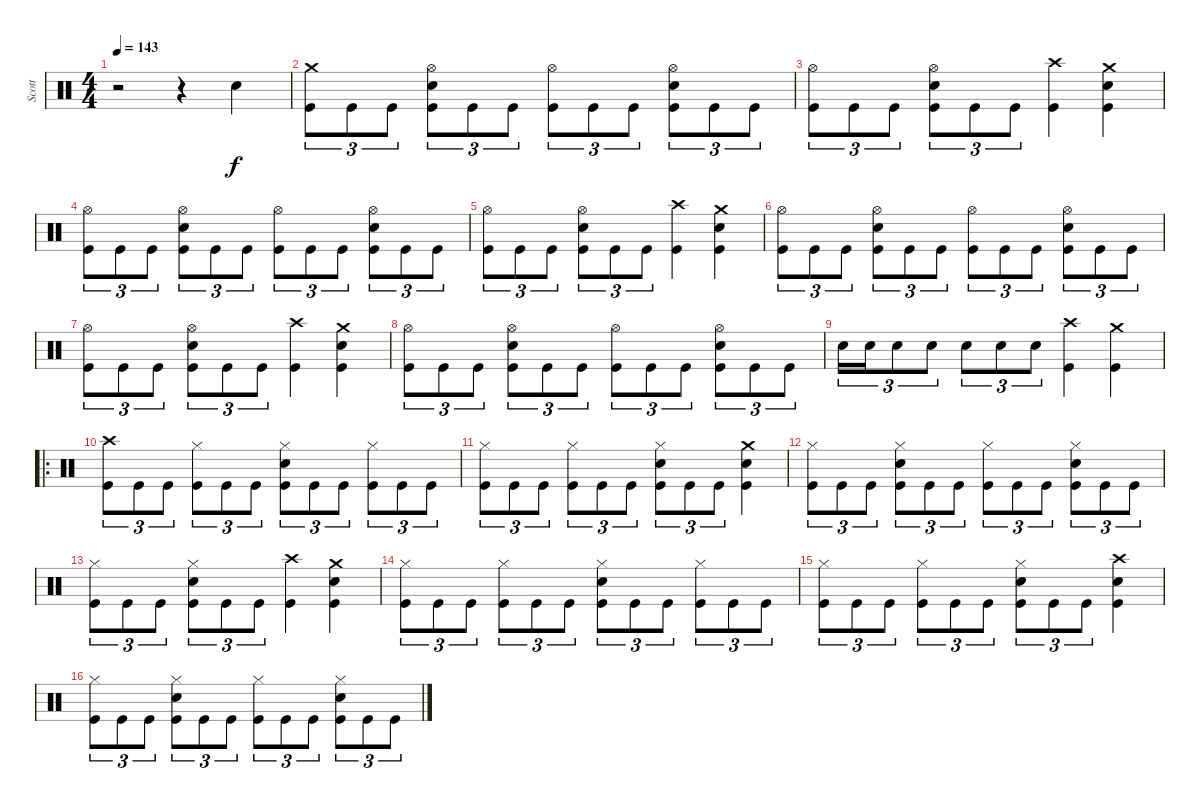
\track ("Scott" "Scott") {instrument percussion}
\staff {score}
\articulation defaults
\ts (4 4)
\tempo 143
\clef neutral
\ks c
r.2{dy f} r.4 "Snare (hit) 2".4 |
("Kick (hit)" "Crash medium (hit)").8{tu (3 2)} "Kick (hit)".8{tu (3 2)} "Kick (hit)".8{tu (3 2)} ("Kick (hit)" "Snare (hit) 2" "Hi-Hat (open)").8{tu (3 2)} "Kick (hit)".8{tu (3 2)} "Kick (hit)".8{tu (3 2)} ("Kick (hit)" "Hi-Hat (open)").8{tu (3 2)} "Kick (hit)".8{tu (3 2)} "Kick (hit)".8{tu (3 2)} ("Kick (hit)" "Snare (hit) 2" "Hi-Hat (open)").8{tu (3 2)} "Kick (hit)".8{tu (3 2)} "Kick (hit)".8{tu (3 2)} |
("Kick (hit)" "Hi-Hat (open)").8{tu (3 2)} "Kick (hit)".8{tu (3 2)} "Kick (hit)".8{tu (3 2)} ("Kick (hit)" "Snare (hit) 2" "Hi-Hat (open)").8{tu (3 2)} "Kick (hit)".8{tu (3 2)} "Kick (hit)".8{tu (3 2)} ("Kick (hit)" "Crash high (hit)").4 ("Kick (hit)" "Snare (hit) 2" "Crash medium (hit)").4 |
("Kick (hit)" "Hi-Hat (open)").8{tu (3 2)} "Kick (hit)".8{tu (3 2)} "Kick (hit)".8{tu (3 2)} ("Kick (hit)" "Snare (hit) 2" "Hi-Hat (open)").8{tu (3 2)} "Kick (hit)".8{tu (3 2)} "Kick (hit)".8{tu (3 2)} ("Kick (hit)" "Hi-Hat (open)").8{tu (3 2)} "Kick (hit)".8{tu (3 2)} "Kick (hit)".8{tu (3 2)} ("Kick (hit)" "Snare (hit) 2" "Hi-Hat (open)").8{tu (3 2)} "Kick (hit)".8{tu (3 2)} "Kick (hit)".8{tu (3 2)} |
("Kick (hit)" "Hi-Hat (open)").8{tu (3 2)} "Kick (hit)".8{tu (3 2)} "Kick (hit)".8{tu (3 2)} ("Kick (hit)" "Snare (hit) 2" "Hi-Hat (open)").8{tu (3 2)} "Kick (hit)".8{tu (3 2)} "Kick (hit)".8{tu (3 2)} ("Kick (hit)" "Crash high (hit)").4 ("Kick (hit)" "Snare (hit) 2" "Crash medium (hit)").4 |
("Kick (hit)" "Hi-Hat (open)").8{tu (3 2)} "Kick (hit)".8{tu (3 2)} "Kick (hit)".8{tu (3 2)} ("Kick (hit)" "Snare (hit) 2" "Hi-Hat (open)").8{tu (3 2)} "Kick (hit)".8{tu (3 2)} "Kick (hit)".8{tu (3 2)} ("Kick (hit)" "Hi-Hat (open)").8{tu (3 2)} "Kick (hit)".8{tu (3 2)} "Kick (hit)".8{tu (3 2)} ("Kick (hit)" "Snare (hit) 2" "Hi-Hat (open)").8{tu (3 2)} "Kick (hit)".8{tu (3 2)} "Kick (hit)".8{tu (3 2)} |
("Kick (hit)" "Hi-Hat (open)").8{tu (3 2)} "Kick (hit)".8{tu (3 2)} "Kick (hit)".8{tu (3 2)} ("Kick (hit)" "Snare (hit) 2" "Hi-Hat (open)").8{tu (3 2)} "Kick (hit)".8{tu (3 2)} "Kick (hit)".8{tu (3 2)} ("Kick (hit)" "Crash high (hit)").4 ("Kick (hit)" "Snare (hit) 2" "Crash medium (hit)").4 |
("Kick (hit)" "Hi-Hat (open)").8{tu (3 2)} "Kick (hit)".8{tu (3 2)} "Kick (hit)".8{tu (3 2)} ("Kick (hit)" "Snare (hit) 2" "Hi-Hat (open)").8{tu (3 2)} "Kick (hit)".8{tu (3 2)} "Kick (hit)".8{tu (3 2)} ("Kick (hit)" "Hi-Hat (open)").8{tu (3 2)} "Kick (hit)".8{tu (3 2)} "Kick (hit)".8{tu (3 2)} ("Kick (hit)" "Snare (hit) 2" "Hi-Hat (open)").8{tu (3 2)} "Kick (hit)".8{tu (3 2)} "Kick (hit)".8{tu (3 2)} |
"Snare (hit) 2".16{tu (3 2)} "Snare (hit) 2".16{tu (3 2)} "Snare (hit) 2".8{tu (3 2)} "Snare (hit) 2".8{tu (3 2)} "Snare (hit) 2".8{tu (3 2)} "Snare (hit) 2".8{tu (3 2)} "Snare (hit) 2".8{tu (3 2)} ("Kick (hit)" "Crash high (hit)").4 ("Kick (hit)" "Crash medium (hit)").4 |
\ro
("Kick (hit)" "Crash high (hit)").8{tu (3 2)} "Kick (hit)".8{tu (3 2)} "Kick (hit)".8{tu (3 2)} ("Kick (hit)" "Hi-Hat (closed)").8{tu (3 2)} "Kick (hit)".8{tu (3 2)} "Kick (hit)".8{tu (3 2)} ("Kick (hit)" "Snare (hit) 2" "Hi-Hat (closed)").8{tu (3 2)} "Kick (hit)".8{tu (3 2)} "Kick (hit)".8{tu (3 2)} ("Kick (hit)" "Hi-Hat (closed)").8{tu (3 2)} "Kick (hit)".8{tu (3 2)} "Kick (hit)".8{tu (3 2)} |
("Kick (hit)" "Hi-Hat (closed)").8{tu (3 2)} "Kick (hit)".8{tu (3 2)} "Kick (hit)".8{tu (3 2)} ("Kick (hit)" "Hi-Hat (closed)").8{tu (3 2)} "Kick (hit)".8{tu (3 2)} "Kick (hit)".8{tu (3 2)} ("Kick (hit)" "Snare (hit) 2" "Hi-Hat (closed)").8{tu (3 2)} "Kick (hit)".8{tu (3 2)} "Kick (hit)".8{tu (3 2)} ("Kick (hit)" "Snare (hit) 2" "Crash medium (hit)").4 |
("Kick (hit)" "Hi-Hat (closed)").8{tu (3 2)} "Kick (hit)".8{tu (3 2)} "Kick (hit)".8{tu (3 2)} ("Kick (hit)" "Snare (hit) 2" "Hi-Hat (closed)").8{tu (3 2)} "Kick (hit)".8{tu (3 2)} "Kick (hit)".8{tu (3 2)} ("Kick (hit)" "Hi-Hat (closed)").8{tu (3 2)} "Kick (hit)".8{tu (3 2)} "Kick (hit)".8{tu (3 2)} ("Kick (hit)" "Snare (hit) 2" "Hi-Hat (closed)").8{tu (3 2)} "Kick (hit)".8{tu (3 2)} "Kick (hit)".8{tu (3 2)} |
("Kick (hit)" "Hi-Hat (closed)").8{tu (3 2)} "Kick (hit)".8{tu (3 2)} "Kick (hit)".8{tu (3 2)} ("Kick (hit)" "Snare (hit) 2" "Hi-Hat (closed)").8{tu (3 2)} "Kick (hit)".8{tu (3 2)} "Kick (hit)".8{tu (3 2)} ("Kick (hit)" "Crash high (hit)").4 ("Kick (hit)" "Snare (hit) 2" "Crash medium (hit)").4 |
("Kick (hit)" "Hi-Hat (closed)").8{tu (3 2)} "Kick (hit)".8{tu (3 2)} "Kick (hit)".8{tu (3 2)} ("Kick (hit)" "Hi-Hat (closed)").8{tu (3 2)} "Kick (hit)".8{tu (3 2)} "Kick (hit)".8{tu (3 2)} ("Kick (hit)" "Snare (hit) 2" "Hi-Hat (closed)").8{tu (3 2)} "Kick (hit)".8{tu (3 2)} "Kick (hit)".8{tu (3 2)} ("Kick (hit)" "Hi-Hat (closed)").8{tu (3 2)} "Kick (hit)".8{tu (3 2)} "Kick (hit)".8{tu (3 2)} |
("Kick (hit)" "Hi-Hat (closed)").8{tu (3 2)} "Kick (hit)".8{tu (3 2)} "Kick (hit)".8{tu (3 2)} ("Kick (hit)" "Hi-Hat (closed)").8{tu (3 2)} "Kick (hit)".8{tu (3 2)} "Kick (hit)".8{tu (3 2)} ("Kick (hit)" "Snare (hit) 2" "Hi-Hat (closed)").8{tu (3 2)} "Kick (hit)".8{tu (3 2)} "Kick (hit)".8{tu (3 2)} ("Kick (hit)" "Snare (hit) 2" "Crash high (hit)").4 |
("Kick (hit)" "Hi-Hat (closed)").8{tu (3 2)} "Kick (hit)".8{tu (3 2)} "Kick (hit)".8{tu (3 2)} ("Kick (hit)" "Snare (hit) 2" "Hi-Hat (closed)").8{tu (3 2)} "Kick (hit)".8{tu (3 2)} "Kick (hit)".8{tu (3 2)} ("Kick (hit)" "Hi-Hat (closed)").8{tu (3 2)} "Kick (hit)".8{tu (3 2)} "Kick (hit)".8{tu (3 2)} ("Kick (hit)" "Snare (hit) 2" "Hi-Hat (closed)").8{tu (3 2)} "Kick (hit)".8{tu (3 2)} "Kick (hit)".8{tu (3 2)}
